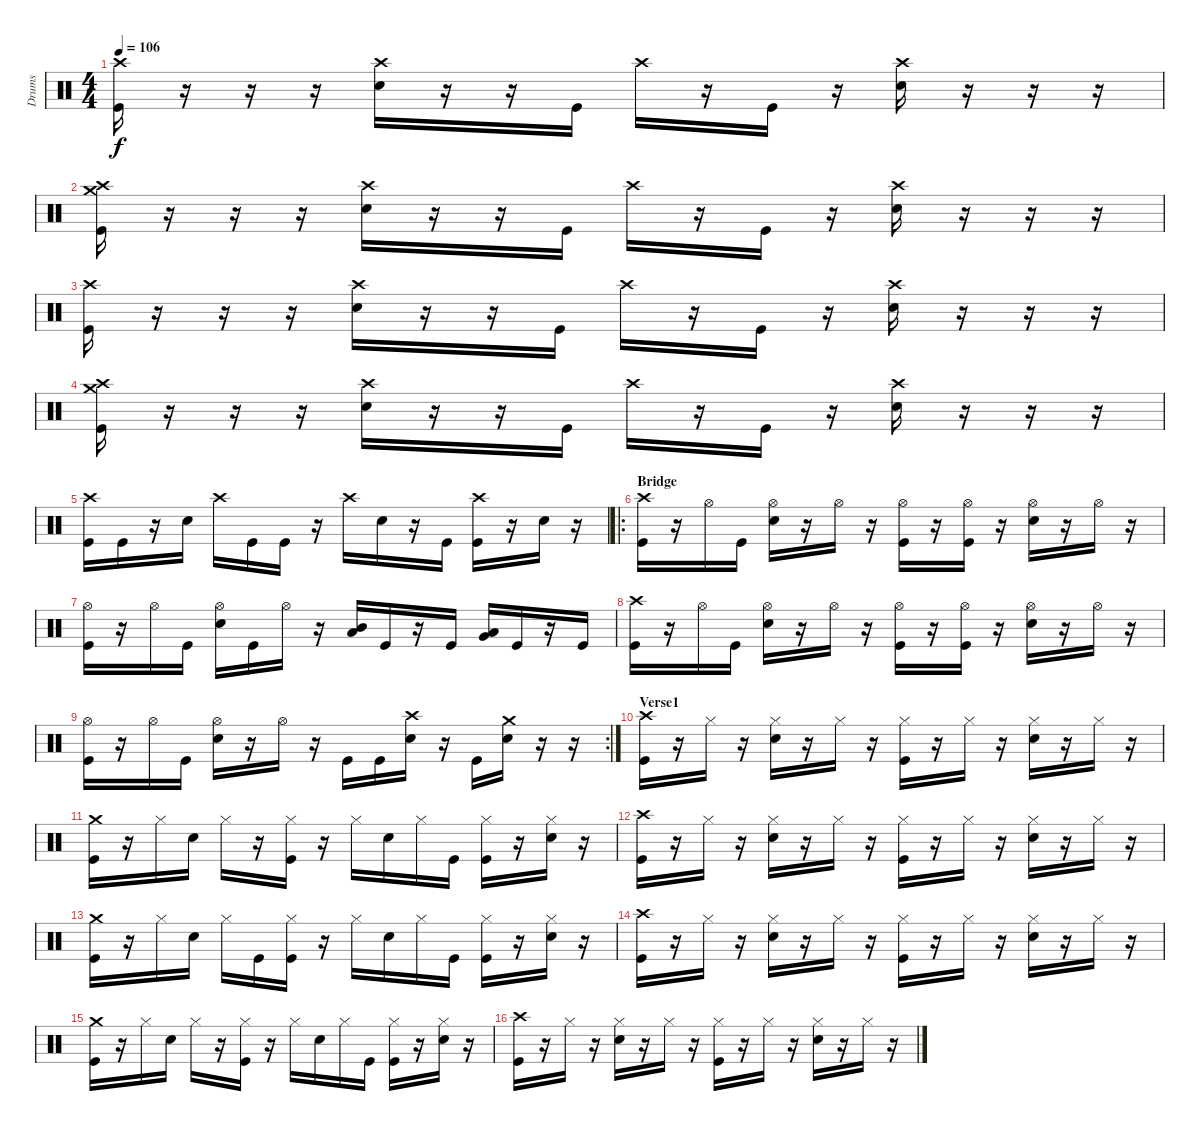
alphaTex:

\track ("Drums" "Drums") {instrument percussion}
\staff {score}
\articulation defaults
\ts (4 4)
\tempo 106
\clef neutral
\ks c
("Crash high (hit)" "Kick (hit)").16{dy f} r.16 r.16 r.16 ("Crash high (hit)" "Electric Snare (hit)").16 r.16 r.16 "Kick (hit)".16 "Crash high (hit)".16 r.16 "Kick (hit)".16 r.16 ("Crash high (hit)" "Electric Snare (hit)").16 r.16 r.16 r.16 |
("Crash high (hit)" "Crash medium (hit)" "Kick (hit)").16 r.16 r.16 r.16 ("Crash high (hit)" "Electric Snare (hit)").16 r.16 r.16 "Kick (hit)".16 "Crash high (hit)".16 r.16 "Kick (hit)".16 r.16 ("Crash high (hit)" "Electric Snare (hit)").16 r.16 r.16 r.16 |
("Crash high (hit)" "Kick (hit)").16 r.16 r.16 r.16 ("Crash high (hit)" "Electric Snare (hit)").16 r.16 r.16 "Kick (hit)".16 "Crash high (hit)".16 r.16 "Kick (hit)".16 r.16 ("Crash high (hit)" "Electric Snare (hit)").16 r.16 r.16 r.16 |
("Crash high (hit)" "Crash medium (hit)" "Kick (hit)").16 r.16 r.16 r.16 ("Crash high (hit)" "Electric Snare (hit)").16 r.16 r.16 "Kick (hit)".16 "Crash high (hit)".16 r.16 "Kick (hit)".16 r.16 ("Crash high (hit)" "Electric Snare (hit)").16 r.16 r.16 r.16 |
("Crash high (hit)" "Kick (hit)").16 "Kick (hit)".16 r.16 "Electric Snare (hit)".16 "Crash high (hit)".16 "Kick (hit)".16 "Kick (hit)".16 r.16 "Crash high (hit)".16 "Electric Snare (hit)".16 r.16 "Kick (hit)".16 ("Crash high (hit)" "Kick (hit)").16 r.16 "Electric Snare (hit)".16 r.16 |
\ro
\section ("" "Bridge")
("Crash high (hit)" "Kick (hit)").16 r.16 "Hi-Hat (open)".16 "Kick (hit)".16 ("Hi-Hat (open)" "Electric Snare (hit)").16 r.16 "Hi-Hat (open)".16 r.16 ("Hi-Hat (open)" "Kick (hit)").16 r.16 ("Hi-Hat (open)" "Kick (hit)").16 r.16 ("Hi-Hat (open)" "Electric Snare (hit)").16 r.16 "Hi-Hat (open)".16 r.16 |
("Hi-Hat (open)" "Kick (hit)").16 r.16 "Hi-Hat (open)".16 "Kick (hit)".16 ("Hi-Hat (open)" "Electric Snare (hit)").16 "Kick (hit)".16 "Hi-Hat (open)".16 r.16 ("Mid Tom (hit)" "Low Tom (hit)").16 "Kick (hit)".16 r.16 "Kick (hit)".16 ("Low Tom (hit)" "Very Low Tom (hit)").16 "Kick (hit)".16 r.16 "Kick (hit)".16 |
("Crash high (hit)" "Kick (hit)").16 r.16 "Hi-Hat (open)".16 "Kick (hit)".16 ("Hi-Hat (open)" "Electric Snare (hit)").16 r.16 "Hi-Hat (open)".16 r.16 ("Hi-Hat (open)" "Kick (hit)").16 r.16 ("Hi-Hat (open)" "Kick (hit)").16 r.16 ("Hi-Hat (open)" "Electric Snare (hit)").16 r.16 "Hi-Hat (open)".16 r.16 |
\rc 2
("Hi-Hat (open)" "Kick (hit)").16 r.16 "Hi-Hat (open)".16 "Kick (hit)".16 ("Hi-Hat (open)" "Electric Snare (hit)").16 r.16 "Hi-Hat (open)".16 r.16 "Kick (hit)".16 "Kick (hit)".16 ("Crash high (hit)" "Electric Snare (hit)").16 r.16 "Kick (hit)".16 ("Crash medium (hit)" "Electric Snare (hit)").16 r.16 r.16 |
\section ("" "Verse1")
("Crash high (hit)" "Kick (hit)").16 r.16 "Hi-Hat (closed)".16 r.16 ("Hi-Hat (closed)" "Electric Snare (hit)").16 r.16 "Hi-Hat (closed)".16 r.16 ("Hi-Hat (closed)" "Kick (hit)").16 r.16 "Hi-Hat (closed)".16 r.16 ("Hi-Hat (closed)" "Electric Snare (hit)").16 r.16 "Hi-Hat (closed)".16 r.16 |
("Crash medium (hit)" "Kick (hit)").16 r.16 "Hi-Hat (closed)".16 "Electric Snare (hit)".16 "Hi-Hat (closed)".16 r.16 ("Hi-Hat (closed)" "Kick (hit)").16 r.16 "Hi-Hat (closed)".16 "Electric Snare (hit)".16 "Hi-Hat (closed)".16 "Kick (hit)".16 ("Hi-Hat (closed)" "Kick (hit)").16 r.16 ("Hi-Hat (closed)" "Electric Snare (hit)").16 r.16 |
("Crash high (hit)" "Kick (hit)").16 r.16 "Hi-Hat (closed)".16 r.16 ("Hi-Hat (closed)" "Electric Snare (hit)").16 r.16 "Hi-Hat (closed)".16 r.16 ("Hi-Hat (closed)" "Kick (hit)").16 r.16 "Hi-Hat (closed)".16 r.16 ("Hi-Hat (closed)" "Electric Snare (hit)").16 r.16 "Hi-Hat (closed)".16 r.16 |
("Crash medium (hit)" "Kick (hit)").16 r.16 "Hi-Hat (closed)".16 "Electric Snare (hit)".16 "Hi-Hat (closed)".16 "Kick (hit)".16 ("Hi-Hat (closed)" "Kick (hit)").16 r.16 "Hi-Hat (closed)".16 "Electric Snare (hit)".16 "Hi-Hat (closed)".16 "Kick (hit)".16 ("Hi-Hat (closed)" "Kick (hit)").16 r.16 ("Hi-Hat (closed)" "Electric Snare (hit)").16 r.16 |
("Crash high (hit)" "Kick (hit)").16 r.16 "Hi-Hat (closed)".16 r.16 ("Hi-Hat (closed)" "Electric Snare (hit)").16 r.16 "Hi-Hat (closed)".16 r.16 ("Hi-Hat (closed)" "Kick (hit)").16 r.16 "Hi-Hat (closed)".16 r.16 ("Hi-Hat (closed)" "Electric Snare (hit)").16 r.16 "Hi-Hat (closed)".16 r.16 |
("Crash medium (hit)" "Kick (hit)").16 r.16 "Hi-Hat (closed)".16 "Electric Snare (hit)".16 "Hi-Hat (closed)".16 r.16 ("Hi-Hat (closed)" "Kick (hit)").16 r.16 "Hi-Hat (closed)".16 "Electric Snare (hit)".16 "Hi-Hat (closed)".16 "Kick (hit)".16 ("Hi-Hat (closed)" "Kick (hit)").16 r.16 ("Hi-Hat (closed)" "Electric Snare (hit)").16 r.16 |
("Crash high (hit)" "Kick (hit)").16 r.16 "Hi-Hat (closed)".16 r.16 ("Hi-Hat (closed)" "Electric Snare (hit)").16 r.16 "Hi-Hat (closed)".16 r.16 ("Hi-Hat (closed)" "Kick (hit)").16 r.16 "Hi-Hat (closed)".16 r.16 ("Hi-Hat (closed)" "Electric Snare (hit)").16 r.16 "Hi-Hat (closed)".16 r.16
